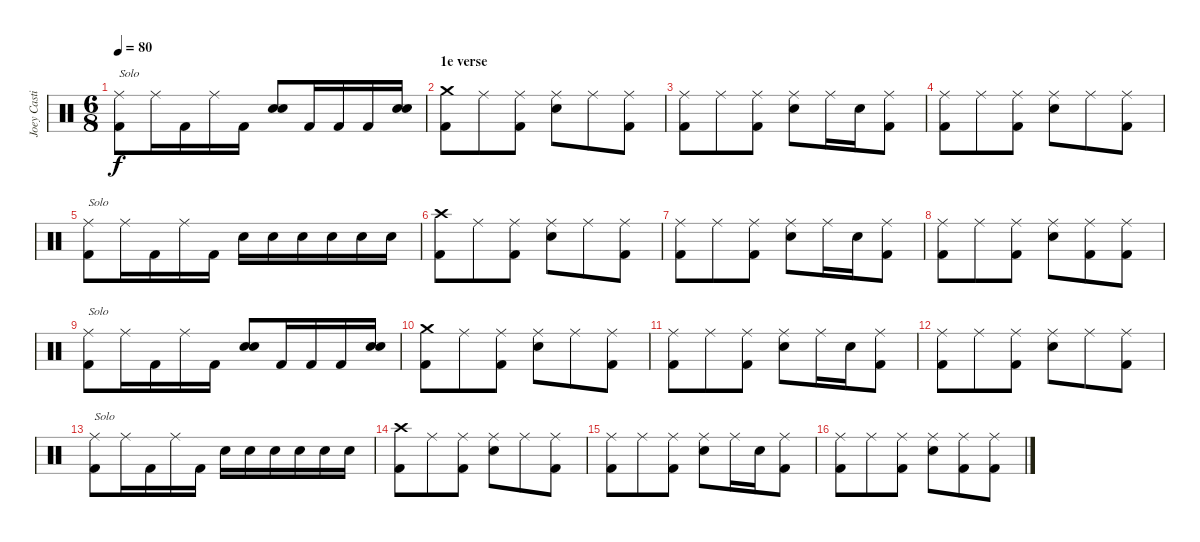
\track ("Joey Castillo - drums" "Joey Casti") {instrument percussion}
\staff {score}
\articulation defaults
\ts (6 8)
\tempo 80
\clef neutral
\ks c
("Ride (middle)" "Kick (hit) 2").8{txt "Solo" dy f} "Ride (middle)".16 "Kick (hit) 2".16 "Ride (middle)".16 "Kick (hit) 2".16 ("Electric Snare (hit)" "Snare (hit) 2").8 "Kick (hit) 2".16 "Kick (hit) 2".16 "Kick (hit) 2".16 ("Electric Snare (hit)" "Snare (hit) 2").16 |
\section ("" "1e verse")
("Crash medium (hit)" "Kick (hit) 2").8 "Ride (middle)".8 ("Ride (middle)" "Kick (hit) 2").8 ("Ride (middle)" "Electric Snare (hit)").8 "Ride (middle)".8 ("Ride (middle)" "Kick (hit) 2").8 |
("Ride (middle)" "Kick (hit) 2").8 "Ride (middle)".8 ("Ride (middle)" "Kick (hit) 2").8 ("Ride (middle)" "Electric Snare (hit)").8 "Ride (middle)".16 "Electric Snare (hit)".16 ("Ride (middle)" "Kick (hit) 2").8 |
("Ride (middle)" "Kick (hit) 2").8 "Ride (middle)".8 ("Ride (middle)" "Kick (hit) 2").8 ("Ride (middle)" "Electric Snare (hit)").8 "Ride (middle)".8 ("Ride (middle)" "Kick (hit) 2").8 |
("Ride (middle)" "Kick (hit) 2").8{txt "Solo"} "Ride (middle)".16 "Kick (hit) 2".16 "Ride (middle)".16 "Kick (hit) 2".16 "Electric Snare (hit)".16 "Electric Snare (hit)".16 "Electric Snare (hit)".16 "Electric Snare (hit)".16 "Electric Snare (hit)".16 "Electric Snare (hit)".16 |
("Crash high (hit)" "Kick (hit) 2").8 "Ride (middle)".8 ("Ride (middle)" "Kick (hit) 2").8 ("Ride (middle)" "Electric Snare (hit)").8 "Ride (middle)".8 ("Ride (middle)" "Kick (hit) 2").8 |
("Ride (middle)" "Kick (hit) 2").8 "Ride (middle)".8 ("Ride (middle)" "Kick (hit) 2").8 ("Ride (middle)" "Electric Snare (hit)").8 "Ride (middle)".16 "Electric Snare (hit)".16 ("Ride (middle)" "Kick (hit) 2").8 |
("Ride (middle)" "Kick (hit) 2").8 "Ride (middle)".8 ("Ride (middle)" "Kick (hit) 2").8 ("Ride (middle)" "Electric Snare (hit)").8 ("Ride (middle)" "Kick (hit) 2").8 ("Ride (middle)" "Kick (hit) 2").8 |
("Ride (middle)" "Kick (hit) 2").8{txt "Solo"} "Ride (middle)".16 "Kick (hit) 2".16 "Ride (middle)".16 "Kick (hit) 2".16 ("Electric Snare (hit)" "Snare (hit) 2").8 "Kick (hit) 2".16 "Kick (hit) 2".16 "Kick (hit) 2".16 ("Electric Snare (hit)" "Snare (hit) 2").16 |
("Crash medium (hit)" "Kick (hit) 2").8 "Ride (middle)".8 ("Ride (middle)" "Kick (hit) 2").8 ("Ride (middle)" "Electric Snare (hit)").8 "Ride (middle)".8 ("Ride (middle)" "Kick (hit) 2").8 |
("Ride (middle)" "Kick (hit) 2").8 "Ride (middle)".8 ("Ride (middle)" "Kick (hit) 2").8 ("Ride (middle)" "Electric Snare (hit)").8 "Ride (middle)".16 "Electric Snare (hit)".16 ("Ride (middle)" "Kick (hit) 2").8 |
("Ride (middle)" "Kick (hit) 2").8 "Ride (middle)".8 ("Ride (middle)" "Kick (hit) 2").8 ("Ride (middle)" "Electric Snare (hit)").8 "Ride (middle)".8 ("Ride (middle)" "Kick (hit) 2").8 |
("Ride (middle)" "Kick (hit) 2").8{txt "Solo"} "Ride (middle)".16 "Kick (hit) 2".16 "Ride (middle)".16 "Kick (hit) 2".16 "Electric Snare (hit)".16 "Electric Snare (hit)".16 "Electric Snare (hit)".16 "Electric Snare (hit)".16 "Electric Snare (hit)".16 "Electric Snare (hit)".16 |
("Crash high (hit)" "Kick (hit) 2").8 "Ride (middle)".8 ("Ride (middle)" "Kick (hit) 2").8 ("Ride (middle)" "Electric Snare (hit)").8 "Ride (middle)".8 ("Ride (middle)" "Kick (hit) 2").8 |
("Ride (middle)" "Kick (hit) 2").8 "Ride (middle)".8 ("Ride (middle)" "Kick (hit) 2").8 ("Ride (middle)" "Electric Snare (hit)").8 "Ride (middle)".16 "Electric Snare (hit)".16 ("Ride (middle)" "Kick (hit) 2").8 |
("Ride (middle)" "Kick (hit) 2").8 "Ride (middle)".8 ("Ride (middle)" "Kick (hit) 2").8 ("Ride (middle)" "Electric Snare (hit)").8 ("Ride (middle)" "Kick (hit) 2").8 ("Ride (middle)" "Kick (hit) 2").8
